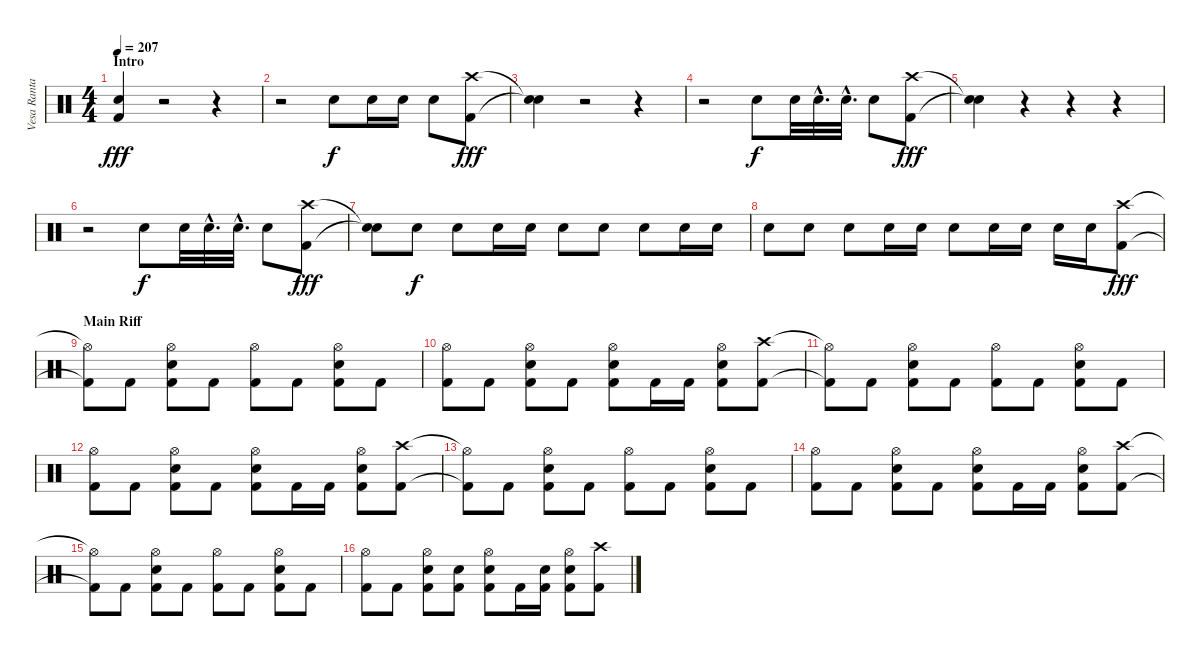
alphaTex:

\track ("Vesa Ranta" "Vesa Ranta") {instrument percussion}
\staff {score}
\articulation defaults
\ts (4 4)
\section ("" "Intro")
\tempo 207
\clef neutral
\ks c
("Snare (hit) 2" "Kick (hit) 2").4{dy fff} r.2 r.4 |
r.2 "Snare (hit) 2".8{dy f} "Snare (hit) 2".16 "Snare (hit) 2".16 "Snare (hit) 2".8 ("Crash high (hit)" "Kick (hit) 2").8{dy fff} |
("Snare (hit)"{t} "Snare (hit)"{t}).4 r.2 r.4 |
r.2 "Snare (hit) 2".8{dy f} "Snare (hit) 2".32 "Snare (hit) 2"{hac}.32{d} "Snare (hit) 2"{hac}.32{d} "Snare (hit) 2".8 ("Crash high (hit)" "Kick (hit) 2").8{dy fff} |
("Snare (hit)"{t} "Snare (hit)"{t}).4 r.4 r.4 r.4 |
r.2 "Snare (hit) 2".8{dy f} "Snare (hit) 2".32 "Snare (hit) 2"{hac}.32{d} "Snare (hit) 2"{hac}.32{d} "Snare (hit) 2".8 ("Crash high (hit)" "Kick (hit) 2").8{dy fff} |
("Snare (hit)"{t} "Snare (hit)"{t}).8 "Snare (hit) 2".8{dy f} "Snare (hit) 2".8 "Snare (hit) 2".16 "Snare (hit) 2".16 "Snare (hit) 2".8 "Snare (hit) 2".8 "Snare (hit) 2".8 "Snare (hit) 2".16 "Snare (hit) 2".16 |
"Snare (hit) 2".8 "Snare (hit) 2".8 "Snare (hit) 2".8 "Snare (hit) 2".16 "Snare (hit) 2".16 "Snare (hit) 2".8 "Snare (hit) 2".16 "Snare (hit) 2".16 "Snare (hit) 2".16 "Snare (hit) 2".16 ("Crash high (hit)" "Kick (hit) 2").8{dy fff} |
\section ("" "Main Riff")
("Hi-Hat (open)"{t} "Kick (hit) 2"{t}).8 "Kick (hit) 2".8 ("Hi-Hat (open)" "Snare (hit) 2" "Kick (hit) 2").8 "Kick (hit) 2".8 ("Hi-Hat (open)" "Kick (hit) 2").8 "Kick (hit) 2".8 ("Hi-Hat (open)" "Snare (hit) 2" "Kick (hit) 2").8 "Kick (hit) 2".8 |
("Hi-Hat (open)" "Kick (hit) 2").8 "Kick (hit) 2".8 ("Hi-Hat (open)" "Snare (hit) 2" "Kick (hit) 2").8 "Kick (hit) 2".8 ("Hi-Hat (open)" "Snare (hit) 2" "Kick (hit) 2").8 "Kick (hit) 2".16 "Kick (hit) 2".16 ("Hi-Hat (open)" "Snare (hit) 2" "Kick (hit) 2").8 ("Crash high (hit)" "Kick (hit) 2").8 |
("Hi-Hat (open)"{t} "Kick (hit) 2"{t}).8 "Kick (hit) 2".8 ("Hi-Hat (open)" "Snare (hit) 2" "Kick (hit) 2").8 "Kick (hit) 2".8 ("Hi-Hat (open)" "Kick (hit) 2").8 "Kick (hit) 2".8 ("Hi-Hat (open)" "Snare (hit) 2" "Kick (hit) 2").8 "Kick (hit) 2".8 |
("Hi-Hat (open)" "Kick (hit) 2").8 "Kick (hit) 2".8 ("Hi-Hat (open)" "Snare (hit) 2" "Kick (hit) 2").8 "Kick (hit) 2".8 ("Hi-Hat (open)" "Snare (hit) 2" "Kick (hit) 2").8 "Kick (hit) 2".16 "Kick (hit) 2".16 ("Hi-Hat (open)" "Snare (hit) 2" "Kick (hit) 2").8 ("Crash high (hit)" "Kick (hit) 2").8 |
("Hi-Hat (open)"{t} "Kick (hit) 2"{t}).8 "Kick (hit) 2".8 ("Hi-Hat (open)" "Snare (hit) 2" "Kick (hit) 2").8 "Kick (hit) 2".8 ("Hi-Hat (open)" "Kick (hit) 2").8 "Kick (hit) 2".8 ("Hi-Hat (open)" "Snare (hit) 2" "Kick (hit) 2").8 "Kick (hit) 2".8 |
("Hi-Hat (open)" "Kick (hit) 2").8 "Kick (hit) 2".8 ("Hi-Hat (open)" "Snare (hit) 2" "Kick (hit) 2").8 "Kick (hit) 2".8 ("Hi-Hat (open)" "Snare (hit) 2" "Kick (hit) 2").8 "Kick (hit) 2".16 "Kick (hit) 2".16 ("Hi-Hat (open)" "Snare (hit) 2" "Kick (hit) 2").8 ("Crash high (hit)" "Kick (hit) 2").8 |
("Hi-Hat (open)"{t} "Kick (hit) 2"{t}).8 "Kick (hit) 2".8 ("Hi-Hat (open)" "Snare (hit) 2" "Kick (hit) 2").8 "Kick (hit) 2".8 ("Hi-Hat (open)" "Kick (hit) 2").8 "Kick (hit) 2".8 ("Hi-Hat (open)" "Snare (hit) 2" "Kick (hit) 2").8 "Kick (hit) 2".8 |
("Hi-Hat (open)" "Kick (hit) 2").8 "Kick (hit) 2".8 ("Hi-Hat (open)" "Snare (hit) 2" "Kick (hit) 2").8 ("Snare (hit) 2" "Kick (hit) 2").8 ("Hi-Hat (open)" "Snare (hit) 2" "Kick (hit) 2").8 "Kick (hit) 2".16 ("Snare (hit) 2" "Kick (hit) 2").16 ("Hi-Hat (open)" "Snare (hit) 2" "Kick (hit) 2").8 ("Crash high (hit)" "Kick (hit) 2").8
